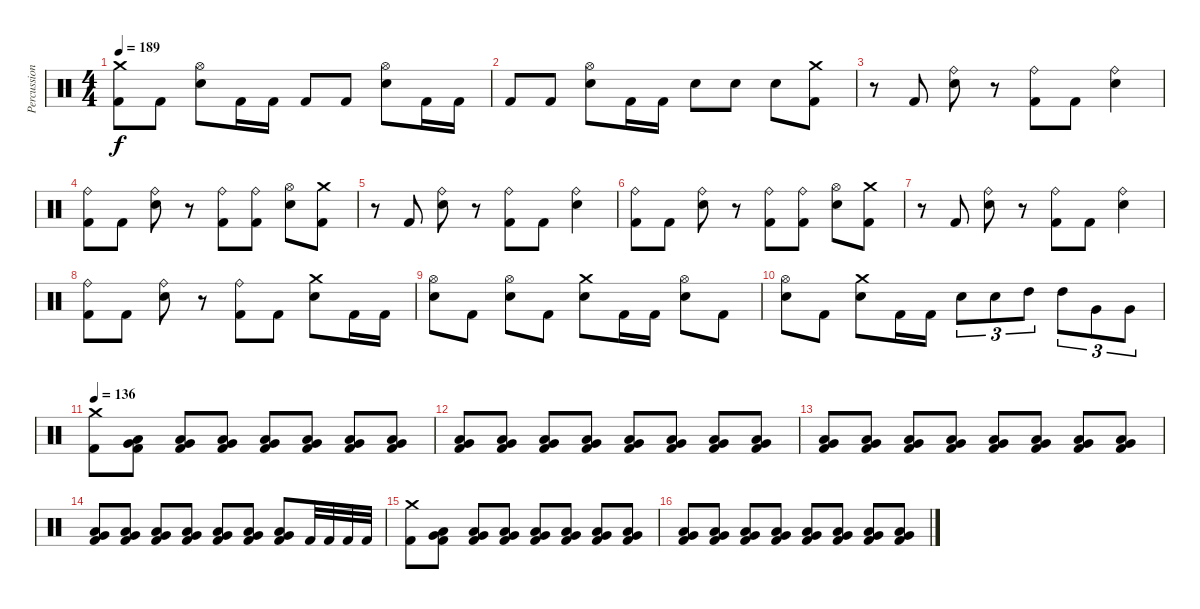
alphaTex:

\track ("Percussion" "Percussion") {instrument percussion}
\staff {score}
\articulation defaults
\ts (4 4)
\tempo 189
\clef neutral
\ks c
("Crash medium (hit)" "Kick (hit) 2").8{dy f} "Kick (hit) 2".8 ("Hi-Hat (open)" "Snare (hit) 2").8 "Kick (hit) 2".16 "Kick (hit) 2".16 "Kick (hit) 2".8 "Kick (hit) 2".8 ("Hi-Hat (open)" "Snare (hit) 2").8 "Kick (hit) 2".16 "Kick (hit) 2".16 |
"Kick (hit) 2".8 "Kick (hit) 2".8 ("Hi-Hat (open)" "Snare (hit) 2").8 "Kick (hit) 2".16 "Kick (hit) 2".16 "Snare (hit) 2".8 "Snare (hit) 2".8 "Snare (hit) 2".8 ("Crash medium (hit)" "Kick (hit) 2").8 |
r.8 "Kick (hit) 2".8 ("Ride (bell)" "Snare (hit) 2").8 r.8 ("Ride (bell)" "Kick (hit) 2").8 "Kick (hit) 2".8 ("Ride (bell)" "Snare (hit) 2").4 |
("Ride (bell)" "Kick (hit) 2").8 "Kick (hit) 2".8 ("Ride (bell)" "Snare (hit) 2").8 r.8 ("Ride (bell)" "Kick (hit) 2").8 ("Ride (bell)" "Kick (hit) 2").8 ("Hi-Hat (open)" "Snare (hit) 2").8 ("Crash medium (hit)" "Kick (hit) 2").8 |
r.8 "Kick (hit) 2".8 ("Ride (bell)" "Snare (hit) 2").8 r.8 ("Ride (bell)" "Kick (hit) 2").8 "Kick (hit) 2".8 ("Ride (bell)" "Snare (hit) 2").4 |
("Ride (bell)" "Kick (hit) 2").8 "Kick (hit) 2".8 ("Ride (bell)" "Snare (hit) 2").8 r.8 ("Ride (bell)" "Kick (hit) 2").8 ("Ride (bell)" "Kick (hit) 2").8 ("Hi-Hat (open)" "Snare (hit) 2").8 ("Crash medium (hit)" "Kick (hit) 2").8 |
r.8 "Kick (hit) 2".8 ("Ride (bell)" "Snare (hit) 2").8 r.8 ("Ride (bell)" "Kick (hit) 2").8 "Kick (hit) 2".8 ("Ride (bell)" "Snare (hit) 2").4 |
("Ride (bell)" "Kick (hit) 2").8 "Kick (hit) 2".8 ("Ride (bell)" "Snare (hit) 2").8 r.8 ("Ride (bell)" "Kick (hit) 2").8 "Kick (hit) 2".8 ("Crash medium (hit)" "Snare (hit) 2").8 "Kick (hit) 2".16 "Kick (hit) 2".16 |
("Hi-Hat (open)" "Snare (hit) 2").8 "Kick (hit) 2".8 ("Hi-Hat (open)" "Snare (hit) 2").8 "Kick (hit) 2".8 ("Crash medium (hit)" "Snare (hit) 2").8 "Kick (hit) 2".16 "Kick (hit) 2".16 ("Hi-Hat (open)" "Snare (hit) 2").8 "Kick (hit) 2".8 |
("Hi-Hat (open)" "Snare (hit) 2").8 "Kick (hit) 2".8 ("Crash medium (hit)" "Snare (hit) 2").8 "Kick (hit) 2".16 "Kick (hit) 2".16 "Snare (hit) 2".8{tu (3 2)} "Snare (hit) 2".8{tu (3 2)} "High Tom (hit)".8{tu (3 2)} "High Tom (hit)".8{tu (3 2)} "Very Low Tom (hit)".8{tu (3 2)} "Very Low Tom (hit)".8{tu (3 2)} |
\tempo 136
("Crash medium (hit)" "Kick (hit) 2").8 ("Very Low Tom (hit)" "Low Tom (hit)" "Kick (hit) 2").8{volume 5} ("Very Low Tom (hit)" "Low Tom (hit)" "Kick (hit) 2").8{volume 13} ("Very Low Tom (hit)" "Low Tom (hit)" "Kick (hit) 2").8 ("Very Low Tom (hit)" "Low Tom (hit)" "Kick (hit) 2").8 ("Very Low Tom (hit)" "Low Tom (hit)" "Kick (hit) 2").8 ("Very Low Tom (hit)" "Low Tom (hit)" "Kick (hit) 2").8 ("Very Low Tom (hit)" "Low Tom (hit)" "Kick (hit) 2").8 |
("Very Low Tom (hit)" "Low Tom (hit)" "Kick (hit) 2").8 ("Very Low Tom (hit)" "Low Tom (hit)" "Kick (hit) 2").8 ("Very Low Tom (hit)" "Low Tom (hit)" "Kick (hit) 2").8 ("Very Low Tom (hit)" "Low Tom (hit)" "Kick (hit) 2").8 ("Very Low Tom (hit)" "Low Tom (hit)" "Kick (hit) 2").8 ("Very Low Tom (hit)" "Low Tom (hit)" "Kick (hit) 2").8 ("Very Low Tom (hit)" "Low Tom (hit)" "Kick (hit) 2").8 ("Very Low Tom (hit)" "Low Tom (hit)" "Kick (hit) 2").8 |
("Very Low Tom (hit)" "Low Tom (hit)" "Kick (hit) 2").8 ("Very Low Tom (hit)" "Low Tom (hit)" "Kick (hit) 2").8 ("Very Low Tom (hit)" "Low Tom (hit)" "Kick (hit) 2").8 ("Very Low Tom (hit)" "Low Tom (hit)" "Kick (hit) 2").8 ("Very Low Tom (hit)" "Low Tom (hit)" "Kick (hit) 2").8 ("Very Low Tom (hit)" "Low Tom (hit)" "Kick (hit) 2").8 ("Very Low Tom (hit)" "Low Tom (hit)" "Kick (hit) 2").8 ("Very Low Tom (hit)" "Low Tom (hit)" "Kick (hit) 2").8 |
("Very Low Tom (hit)" "Low Tom (hit)" "Kick (hit) 2").8 ("Very Low Tom (hit)" "Low Tom (hit)" "Kick (hit) 2").8 ("Very Low Tom (hit)" "Low Tom (hit)" "Kick (hit) 2").8 ("Very Low Tom (hit)" "Low Tom (hit)" "Kick (hit) 2").8 ("Very Low Tom (hit)" "Low Tom (hit)" "Kick (hit) 2").8 ("Very Low Tom (hit)" "Low Tom (hit)" "Kick (hit) 2").8 ("Very Low Tom (hit)" "Low Tom (hit)" "Kick (hit) 2").8 "Kick (hit) 2".32 "Kick (hit) 2".32 "Kick (hit) 2".32 "Kick (hit) 2".32 |
("Crash medium (hit)" "Kick (hit) 2").8 ("Very Low Tom (hit)" "Low Tom (hit)" "Kick (hit) 2").8 ("Very Low Tom (hit)" "Low Tom (hit)" "Kick (hit) 2").8 ("Very Low Tom (hit)" "Low Tom (hit)" "Kick (hit) 2").8 ("Very Low Tom (hit)" "Low Tom (hit)" "Kick (hit) 2").8 ("Very Low Tom (hit)" "Low Tom (hit)" "Kick (hit) 2").8 ("Very Low Tom (hit)" "Low Tom (hit)" "Kick (hit) 2").8 ("Very Low Tom (hit)" "Low Tom (hit)" "Kick (hit) 2").8 |
("Very Low Tom (hit)" "Low Tom (hit)" "Kick (hit) 2").8 ("Very Low Tom (hit)" "Low Tom (hit)" "Kick (hit) 2").8 ("Very Low Tom (hit)" "Low Tom (hit)" "Kick (hit) 2").8 ("Very Low Tom (hit)" "Low Tom (hit)" "Kick (hit) 2").8 ("Very Low Tom (hit)" "Low Tom (hit)" "Kick (hit) 2").8 ("Very Low Tom (hit)" "Low Tom (hit)" "Kick (hit) 2").8 ("Very Low Tom (hit)" "Low Tom (hit)" "Kick (hit) 2").8 ("Very Low Tom (hit)" "Low Tom (hit)" "Kick (hit) 2").8
